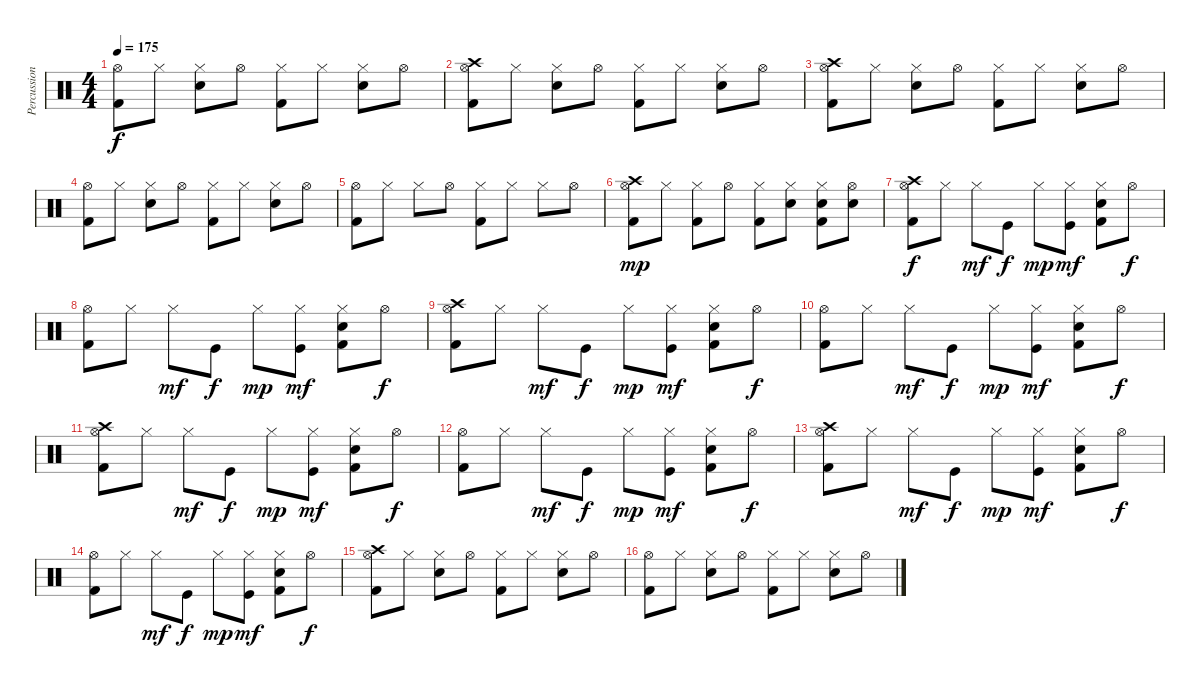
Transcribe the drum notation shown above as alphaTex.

\track ("Percussion" "Percussion") {instrument percussion}
\staff {score}
\articulation defaults
\ts (4 4)
\tempo 175
\clef neutral
\ks c
("Kick (hit) 2" "Hi-Hat (open)").8{dy f} "Hi-Hat (closed)".8 ("Snare (hit) 2" "Hi-Hat (closed)").8 "Hi-Hat (open)".8 ("Kick (hit) 2" "Hi-Hat (closed)").8 "Hi-Hat (closed)".8 ("Snare (hit) 2" "Hi-Hat (closed)").8 "Hi-Hat (open)".8 |
("Kick (hit) 2" "Hi-Hat (open)" "Crash high (hit)").8 "Hi-Hat (closed)".8 ("Snare (hit) 2" "Hi-Hat (closed)").8 "Hi-Hat (open)".8 ("Kick (hit) 2" "Hi-Hat (closed)").8 "Hi-Hat (closed)".8 ("Snare (hit) 2" "Hi-Hat (closed)").8 "Hi-Hat (open)".8 |
("Kick (hit) 2" "Hi-Hat (open)" "Crash high (hit)").8 "Hi-Hat (closed)".8 ("Snare (hit) 2" "Hi-Hat (closed)").8 "Hi-Hat (open)".8 ("Kick (hit) 2" "Hi-Hat (closed)").8 "Hi-Hat (closed)".8 ("Snare (hit) 2" "Hi-Hat (closed)").8 "Hi-Hat (open)".8 |
("Kick (hit) 2" "Hi-Hat (open)").8 "Hi-Hat (closed)".8 ("Snare (hit) 2" "Hi-Hat (closed)").8 "Hi-Hat (open)".8 ("Kick (hit) 2" "Hi-Hat (closed)").8 "Hi-Hat (closed)".8 ("Snare (hit) 2" "Hi-Hat (closed)").8 "Hi-Hat (open)".8 |
("Kick (hit) 2" "Hi-Hat (open)").8 "Hi-Hat (closed)".8 "Hi-Hat (closed)".8 "Hi-Hat (open)".8 ("Kick (hit) 2" "Hi-Hat (closed)").8 "Hi-Hat (closed)".8 "Hi-Hat (closed)".8 "Hi-Hat (open)".8 |
("Hi-Hat (open)" "Crash high (hit)" "Kick (hit) 2").8{dy mp} "Hi-Hat (closed)".8 ("Hi-Hat (closed)" "Kick (hit) 2").8 "Hi-Hat (open)".8 ("Hi-Hat (closed)" "Kick (hit) 2").8 ("Hi-Hat (closed)" "Snare (hit) 2").8 ("Hi-Hat (closed)" "Kick (hit) 2" "Electric Snare (hit)").8 ("Hi-Hat (open)" "Snare (hit) 2").8 |
("Kick (hit) 2" "Hi-Hat (open)" "Crash high (hit)").8{dy f} "Hi-Hat (closed)".8 "Hi-Hat (closed)".8{dy mf} "Kick (hit)".8{dy f} "Hi-Hat (closed)".8{dy mp} ("Kick (hit)" "Hi-Hat (closed)").8{dy mf} ("Kick (hit) 2" "Electric Snare (hit)" "Hi-Hat (closed)").8 "Hi-Hat (open)".8{dy f} |
("Kick (hit) 2" "Hi-Hat (open)").8 "Hi-Hat (closed)".8 "Hi-Hat (closed)".8{dy mf} "Kick (hit)".8{dy f} "Hi-Hat (closed)".8{dy mp} ("Kick (hit)" "Hi-Hat (closed)").8{dy mf} ("Kick (hit) 2" "Electric Snare (hit)" "Hi-Hat (closed)").8 "Hi-Hat (open)".8{dy f} |
("Kick (hit) 2" "Hi-Hat (open)" "Crash high (hit)").8 "Hi-Hat (closed)".8 "Hi-Hat (closed)".8{dy mf} "Kick (hit)".8{dy f} "Hi-Hat (closed)".8{dy mp} ("Kick (hit)" "Hi-Hat (closed)").8{dy mf} ("Kick (hit) 2" "Electric Snare (hit)" "Hi-Hat (closed)").8 "Hi-Hat (open)".8{dy f} |
("Kick (hit) 2" "Hi-Hat (open)").8 "Hi-Hat (closed)".8 "Hi-Hat (closed)".8{dy mf} "Kick (hit)".8{dy f} "Hi-Hat (closed)".8{dy mp} ("Kick (hit)" "Hi-Hat (closed)").8{dy mf} ("Kick (hit) 2" "Electric Snare (hit)" "Hi-Hat (closed)").8 "Hi-Hat (open)".8{dy f} |
("Kick (hit) 2" "Hi-Hat (open)" "Crash high (hit)").8 "Hi-Hat (closed)".8 "Hi-Hat (closed)".8{dy mf} "Kick (hit)".8{dy f} "Hi-Hat (closed)".8{dy mp} ("Kick (hit)" "Hi-Hat (closed)").8{dy mf} ("Kick (hit) 2" "Electric Snare (hit)" "Hi-Hat (closed)").8 "Hi-Hat (open)".8{dy f} |
("Kick (hit) 2" "Hi-Hat (open)").8 "Hi-Hat (closed)".8 "Hi-Hat (closed)".8{dy mf} "Kick (hit)".8{dy f} "Hi-Hat (closed)".8{dy mp} ("Kick (hit)" "Hi-Hat (closed)").8{dy mf} ("Kick (hit) 2" "Electric Snare (hit)" "Hi-Hat (closed)").8 "Hi-Hat (open)".8{dy f} |
("Kick (hit) 2" "Hi-Hat (open)" "Crash high (hit)").8 "Hi-Hat (closed)".8 "Hi-Hat (closed)".8{dy mf} "Kick (hit)".8{dy f} "Hi-Hat (closed)".8{dy mp} ("Kick (hit)" "Hi-Hat (closed)").8{dy mf} ("Kick (hit) 2" "Electric Snare (hit)" "Hi-Hat (closed)").8 "Hi-Hat (open)".8{dy f} |
("Kick (hit) 2" "Hi-Hat (open)").8 "Hi-Hat (closed)".8 "Hi-Hat (closed)".8{dy mf} "Kick (hit)".8{dy f} "Hi-Hat (closed)".8{dy mp} ("Kick (hit)" "Hi-Hat (closed)").8{dy mf} ("Kick (hit) 2" "Electric Snare (hit)" "Hi-Hat (closed)").8 "Hi-Hat (open)".8{dy f} |
("Kick (hit) 2" "Hi-Hat (open)" "Crash high (hit)").8 "Hi-Hat (closed)".8 ("Snare (hit) 2" "Hi-Hat (closed)").8 "Hi-Hat (open)".8 ("Kick (hit) 2" "Hi-Hat (closed)").8 "Hi-Hat (closed)".8 ("Snare (hit) 2" "Hi-Hat (closed)").8 "Hi-Hat (open)".8 |
("Kick (hit) 2" "Hi-Hat (open)").8 "Hi-Hat (closed)".8 ("Snare (hit) 2" "Hi-Hat (closed)").8 "Hi-Hat (open)".8 ("Kick (hit) 2" "Hi-Hat (closed)").8 "Hi-Hat (closed)".8 ("Snare (hit) 2" "Hi-Hat (closed)").8 "Hi-Hat (open)".8
